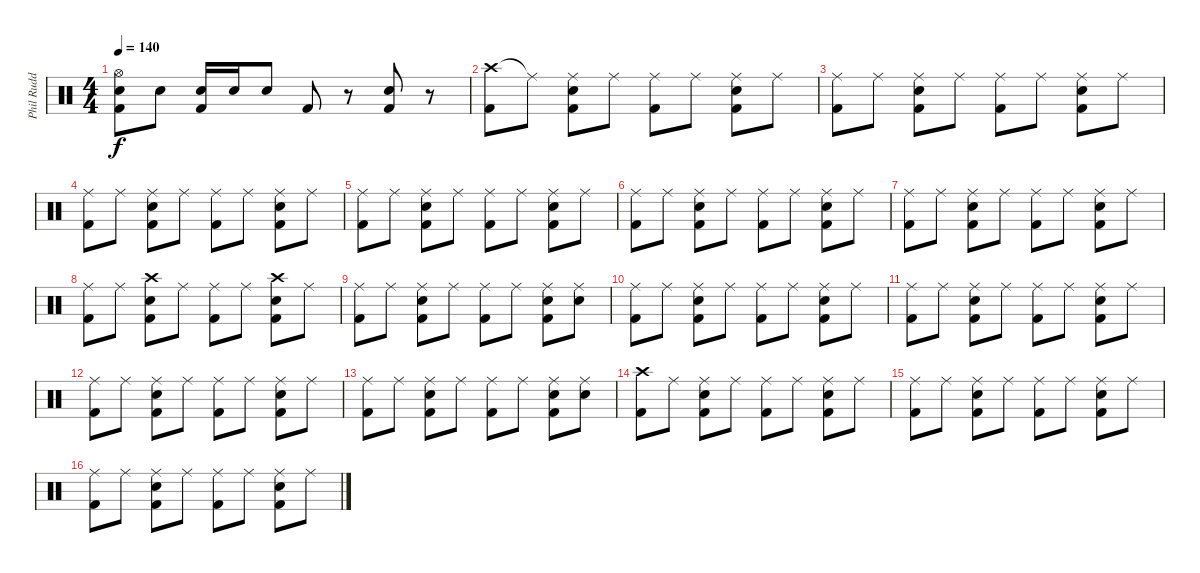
\track ("Phil Rudd" "Phil Rudd") {instrument percussion}
\staff {score}
\articulation defaults
\ts (4 4)
\tempo 140
\clef neutral
\ks c
("Hi-Hat (open)" "Electric Snare (hit)" "Kick (hit) 2").8{dy f} "Electric Snare (hit)".8 ("Electric Snare (hit)" "Kick (hit) 2").16 "Electric Snare (hit)".16 "Electric Snare (hit)".8 "Kick (hit) 2".8 r.8 ("Electric Snare (hit)" "Kick (hit) 2").8 r.8 |
("Crash high (hit)" "Kick (hit) 2").8 "Ride (middle)"{t}.8 ("Ride (middle)" "Electric Snare (hit)" "Kick (hit) 2").8 "Ride (middle)".8 ("Ride (middle)" "Kick (hit) 2").8 "Ride (middle)".8 ("Ride (middle)" "Electric Snare (hit)" "Kick (hit) 2").8 "Ride (middle)".8 |
("Ride (middle)" "Kick (hit) 2").8 "Ride (middle)".8 ("Ride (middle)" "Electric Snare (hit)" "Kick (hit) 2").8 "Ride (middle)".8 ("Ride (middle)" "Kick (hit) 2").8 "Ride (middle)".8 ("Ride (middle)" "Electric Snare (hit)" "Kick (hit) 2").8 "Ride (middle)".8 |
("Ride (middle)" "Kick (hit) 2").8 "Ride (middle)".8 ("Ride (middle)" "Electric Snare (hit)" "Kick (hit) 2").8 "Ride (middle)".8 ("Ride (middle)" "Kick (hit) 2").8 "Ride (middle)".8 ("Ride (middle)" "Electric Snare (hit)" "Kick (hit) 2").8 "Ride (middle)".8 |
("Ride (middle)" "Kick (hit) 2").8 "Ride (middle)".8 ("Ride (middle)" "Electric Snare (hit)" "Kick (hit) 2").8 "Ride (middle)".8 ("Ride (middle)" "Kick (hit) 2").8 "Ride (middle)".8 ("Ride (middle)" "Electric Snare (hit)" "Kick (hit) 2").8 "Ride (middle)".8 |
("Ride (middle)" "Kick (hit) 2").8 "Ride (middle)".8 ("Ride (middle)" "Electric Snare (hit)" "Kick (hit) 2").8 "Ride (middle)".8 ("Ride (middle)" "Kick (hit) 2").8 "Ride (middle)".8 ("Ride (middle)" "Electric Snare (hit)" "Kick (hit) 2").8 "Ride (middle)".8 |
("Ride (middle)" "Kick (hit) 2").8 "Ride (middle)".8 ("Ride (middle)" "Electric Snare (hit)" "Kick (hit) 2").8 "Ride (middle)".8 ("Ride (middle)" "Kick (hit) 2").8 "Ride (middle)".8 ("Ride (middle)" "Electric Snare (hit)" "Kick (hit) 2").8 "Ride (middle)".8 |
("Ride (middle)" "Kick (hit) 2").8 "Ride (middle)".8 ("Crash high (hit)" "Electric Snare (hit)" "Kick (hit) 2").8 "Ride (middle)".8 ("Ride (middle)" "Kick (hit) 2").8 "Ride (middle)".8 ("Crash high (hit)" "Electric Snare (hit)" "Kick (hit) 2").8 "Ride (middle)".8 |
("Ride (middle)" "Kick (hit) 2").8 "Ride (middle)".8 ("Ride (middle)" "Electric Snare (hit)" "Kick (hit) 2").8 "Ride (middle)".8 ("Ride (middle)" "Kick (hit) 2").8 "Ride (middle)".8 ("Ride (middle)" "Electric Snare (hit)" "Kick (hit) 2").8 ("Ride (middle)" "Electric Snare (hit)").8 |
("Ride (middle)" "Kick (hit) 2").8 "Ride (middle)".8 ("Ride (middle)" "Electric Snare (hit)" "Kick (hit) 2").8 "Ride (middle)".8 ("Ride (middle)" "Kick (hit) 2").8 "Ride (middle)".8 ("Ride (middle)" "Electric Snare (hit)" "Kick (hit) 2").8 "Ride (middle)".8 |
("Ride (middle)" "Kick (hit) 2").8 "Ride (middle)".8 ("Ride (middle)" "Electric Snare (hit)" "Kick (hit) 2").8 "Ride (middle)".8 ("Ride (middle)" "Kick (hit) 2").8 "Ride (middle)".8 ("Ride (middle)" "Electric Snare (hit)" "Kick (hit) 2").8 "Ride (middle)".8 |
("Ride (middle)" "Kick (hit) 2").8 "Ride (middle)".8 ("Ride (middle)" "Electric Snare (hit)" "Kick (hit) 2").8 "Ride (middle)".8 ("Ride (middle)" "Kick (hit) 2").8 "Ride (middle)".8 ("Ride (middle)" "Electric Snare (hit)" "Kick (hit) 2").8 "Ride (middle)".8 |
("Ride (middle)" "Kick (hit) 2").8 "Ride (middle)".8 ("Ride (middle)" "Electric Snare (hit)" "Kick (hit) 2").8 "Ride (middle)".8 ("Ride (middle)" "Kick (hit) 2").8 "Ride (middle)".8 ("Ride (middle)" "Electric Snare (hit)" "Kick (hit) 2").8 ("Ride (middle)" "Electric Snare (hit)").8 |
("Crash high (hit)" "Kick (hit) 2").8 "Ride (middle)".8 ("Ride (middle)" "Electric Snare (hit)" "Kick (hit) 2").8 "Ride (middle)".8 ("Ride (middle)" "Kick (hit) 2").8 "Ride (middle)".8 ("Ride (middle)" "Electric Snare (hit)" "Kick (hit) 2").8 "Ride (middle)".8 |
("Ride (middle)" "Kick (hit) 2").8 "Ride (middle)".8 ("Ride (middle)" "Electric Snare (hit)" "Kick (hit) 2").8 "Ride (middle)".8 ("Ride (middle)" "Kick (hit) 2").8 "Ride (middle)".8 ("Ride (middle)" "Electric Snare (hit)" "Kick (hit) 2").8 "Ride (middle)".8 |
("Ride (middle)" "Kick (hit) 2").8 "Ride (middle)".8 ("Ride (middle)" "Electric Snare (hit)" "Kick (hit) 2").8 "Ride (middle)".8 ("Ride (middle)" "Kick (hit) 2").8 "Ride (middle)".8 ("Ride (middle)" "Electric Snare (hit)" "Kick (hit) 2").8 "Ride (middle)".8
